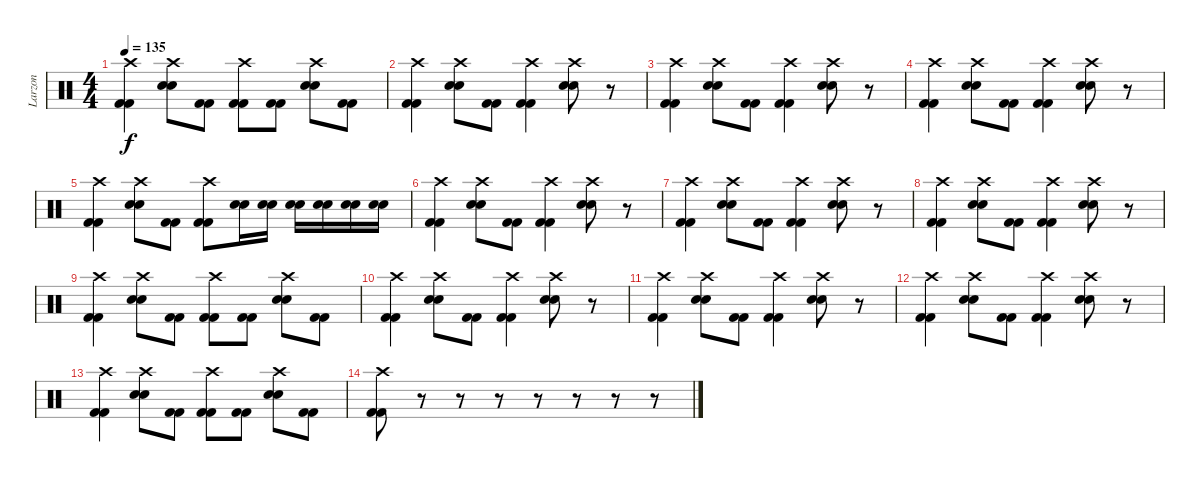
\track ("Larzon" "Larzon") {instrument percussion}
\staff {score}
\articulation defaults
\ts (4 4)
\tempo 135
\clef neutral
\ks c
("Crash high (hit)" "Kick (hit) 2" "Kick (hit) 2").4{dy f} ("Crash high (hit)" "Electric Snare (hit)" "Electric Snare (hit)").8 ("Kick (hit) 2" "Kick (hit) 2").8 ("Crash high (hit)" "Kick (hit) 2" "Kick (hit) 2").8 ("Kick (hit) 2" "Kick (hit) 2").8 ("Crash high (hit)" "Electric Snare (hit)" "Electric Snare (hit)").8 ("Kick (hit) 2" "Kick (hit) 2").8 |
("Crash high (hit)" "Kick (hit) 2" "Kick (hit) 2").4 ("Crash high (hit)" "Electric Snare (hit)" "Electric Snare (hit)").8 ("Kick (hit) 2" "Kick (hit) 2").8 ("Crash high (hit)" "Kick (hit) 2" "Kick (hit) 2").4 ("Crash high (hit)" "Electric Snare (hit)" "Electric Snare (hit)").8 r.8 |
("Crash high (hit)" "Kick (hit) 2" "Kick (hit) 2").4 ("Crash high (hit)" "Electric Snare (hit)" "Electric Snare (hit)").8 ("Kick (hit) 2" "Kick (hit) 2").8 ("Crash high (hit)" "Kick (hit) 2" "Kick (hit) 2").4 ("Crash high (hit)" "Electric Snare (hit)" "Electric Snare (hit)").8 r.8 |
("Crash high (hit)" "Kick (hit) 2" "Kick (hit) 2").4 ("Crash high (hit)" "Electric Snare (hit)" "Electric Snare (hit)").8 ("Kick (hit) 2" "Kick (hit) 2").8 ("Crash high (hit)" "Kick (hit) 2" "Kick (hit) 2").4 ("Crash high (hit)" "Electric Snare (hit)" "Electric Snare (hit)").8 r.8 |
("Crash high (hit)" "Kick (hit) 2" "Kick (hit) 2").4 ("Crash high (hit)" "Electric Snare (hit)" "Electric Snare (hit)").8 ("Kick (hit) 2" "Kick (hit) 2").8 ("Crash high (hit)" "Kick (hit) 2" "Kick (hit) 2").8 ("Electric Snare (hit)" "Electric Snare (hit)").16 ("Electric Snare (hit)" "Electric Snare (hit)").16 ("Electric Snare (hit)" "Electric Snare (hit)").16 ("Electric Snare (hit)" "Electric Snare (hit)").16 ("Electric Snare (hit)" "Electric Snare (hit)").16 ("Electric Snare (hit)" "Electric Snare (hit)").16 |
("Crash high (hit)" "Kick (hit) 2" "Kick (hit) 2").4 ("Crash high (hit)" "Electric Snare (hit)" "Electric Snare (hit)").8 ("Kick (hit) 2" "Kick (hit) 2").8 ("Crash high (hit)" "Kick (hit) 2" "Kick (hit) 2").4 ("Crash high (hit)" "Electric Snare (hit)" "Electric Snare (hit)").8 r.8 |
("Crash high (hit)" "Kick (hit) 2" "Kick (hit) 2").4 ("Crash high (hit)" "Electric Snare (hit)" "Electric Snare (hit)").8 ("Kick (hit) 2" "Kick (hit) 2").8 ("Crash high (hit)" "Kick (hit) 2" "Kick (hit) 2").4 ("Crash high (hit)" "Electric Snare (hit)" "Electric Snare (hit)").8 r.8 |
("Crash high (hit)" "Kick (hit) 2" "Kick (hit) 2").4 ("Crash high (hit)" "Electric Snare (hit)" "Electric Snare (hit)").8 ("Kick (hit) 2" "Kick (hit) 2").8 ("Crash high (hit)" "Kick (hit) 2" "Kick (hit) 2").4 ("Crash high (hit)" "Electric Snare (hit)" "Electric Snare (hit)").8 r.8 |
("Crash high (hit)" "Kick (hit) 2" "Kick (hit) 2").4 ("Crash high (hit)" "Electric Snare (hit)" "Electric Snare (hit)").8 ("Kick (hit) 2" "Kick (hit) 2").8 ("Crash high (hit)" "Kick (hit) 2" "Kick (hit) 2").8 ("Kick (hit) 2" "Kick (hit) 2").8 ("Crash high (hit)" "Electric Snare (hit)" "Electric Snare (hit)").8 ("Kick (hit) 2" "Kick (hit) 2").8 |
("Crash high (hit)" "Kick (hit) 2" "Kick (hit) 2").4 ("Crash high (hit)" "Electric Snare (hit)" "Electric Snare (hit)").8 ("Kick (hit) 2" "Kick (hit) 2").8 ("Crash high (hit)" "Kick (hit) 2" "Kick (hit) 2").4 ("Crash high (hit)" "Electric Snare (hit)" "Electric Snare (hit)").8 r.8 |
("Crash high (hit)" "Kick (hit) 2" "Kick (hit) 2").4 ("Crash high (hit)" "Electric Snare (hit)" "Electric Snare (hit)").8 ("Kick (hit) 2" "Kick (hit) 2").8 ("Crash high (hit)" "Kick (hit) 2" "Kick (hit) 2").4 ("Crash high (hit)" "Electric Snare (hit)" "Electric Snare (hit)").8 r.8 |
("Crash high (hit)" "Kick (hit) 2" "Kick (hit) 2").4 ("Crash high (hit)" "Electric Snare (hit)" "Electric Snare (hit)").8 ("Kick (hit) 2" "Kick (hit) 2").8 ("Crash high (hit)" "Kick (hit) 2" "Kick (hit) 2").4 ("Crash high (hit)" "Electric Snare (hit)" "Electric Snare (hit)").8 r.8 |
("Crash high (hit)" "Kick (hit) 2" "Kick (hit) 2").4 ("Crash high (hit)" "Electric Snare (hit)" "Electric Snare (hit)").8 ("Kick (hit) 2" "Kick (hit) 2").8 ("Crash high (hit)" "Kick (hit) 2" "Kick (hit) 2").8 ("Kick (hit) 2" "Kick (hit) 2").8 ("Crash high (hit)" "Electric Snare (hit)" "Electric Snare (hit)").8 ("Kick (hit) 2" "Kick (hit) 2").8 |
("Crash high (hit)" "Kick (hit) 2" "Kick (hit) 2").8 r.8 r.8 r.8 r.8 r.8 r.8 r.8
